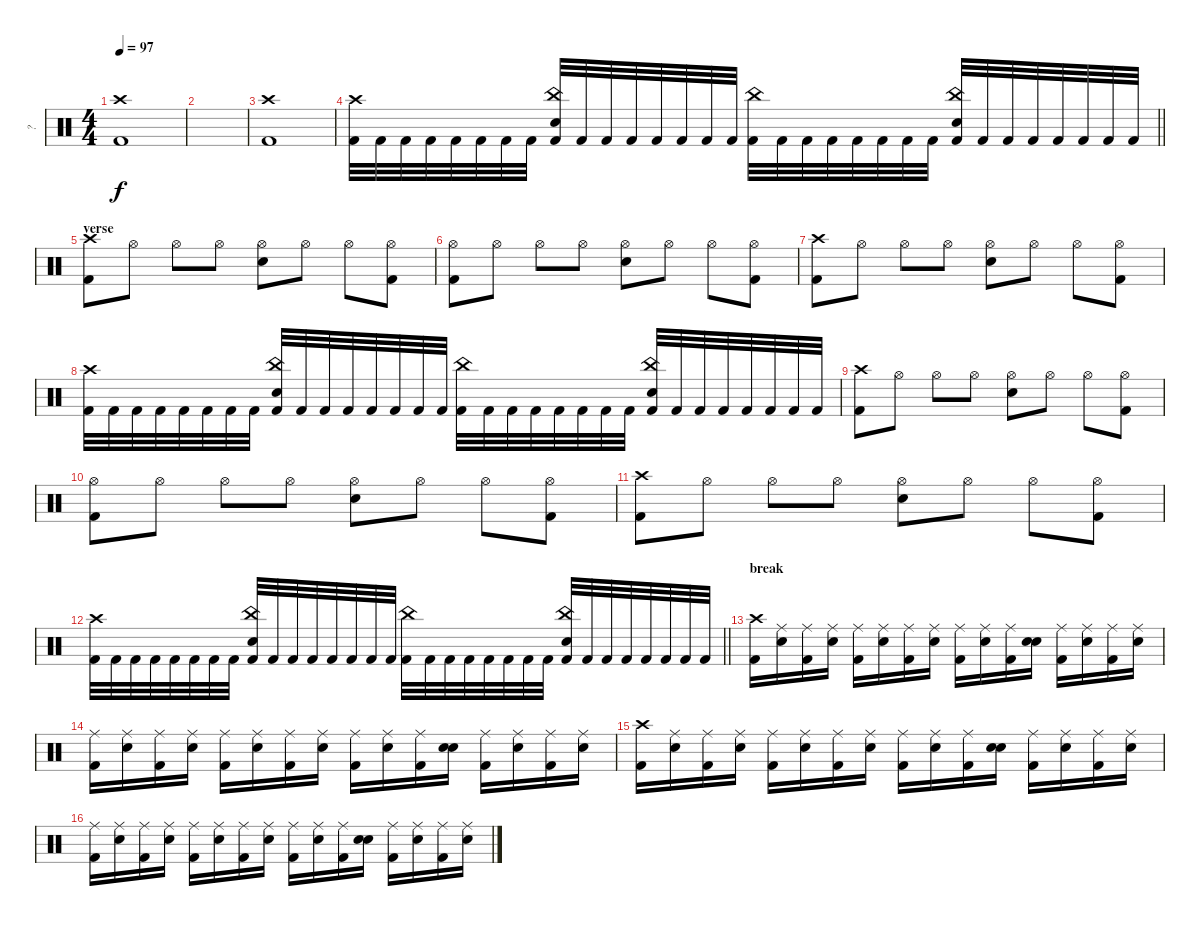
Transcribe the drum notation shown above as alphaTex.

\track ("?" "?") {instrument percussion}
\staff {score}
\articulation defaults
\ts (4 4)
\tempo 97
\clef neutral
\ks c
("Crash high (hit)" "Kick (hit) 2").1{dy f} |
|
("Crash high (hit)" "Kick (hit) 2").1 |
\barLineRight lightlight
("Crash high (hit)" "Kick (hit) 2").32 "Kick (hit) 2".32 "Kick (hit) 2".32 "Kick (hit) 2".32 "Kick (hit) 2".32 "Kick (hit) 2".32 "Kick (hit) 2".32 "Kick (hit) 2".32 ("China (hit)" "Electric Snare (hit)" "Kick (hit) 2").32 "Kick (hit) 2".32 "Kick (hit) 2".32 "Kick (hit) 2".32 "Kick (hit) 2".32 "Kick (hit) 2".32 "Kick (hit) 2".32 "Kick (hit) 2".32 ("China (hit)" "Kick (hit) 2").32 "Kick (hit) 2".32 "Kick (hit) 2".32 "Kick (hit) 2".32 "Kick (hit) 2".32 "Kick (hit) 2".32 "Kick (hit) 2".32 "Kick (hit) 2".32 ("China (hit)" "Electric Snare (hit)" "Kick (hit) 2").32 "Kick (hit) 2".32 "Kick (hit) 2".32 "Kick (hit) 2".32 "Kick (hit) 2".32 "Kick (hit) 2".32 "Kick (hit) 2".32 "Kick (hit) 2".32 |
\section ("" "verse")
("Crash high (hit)" "Kick (hit) 2").8 "Hi-Hat (open)".8 "Hi-Hat (open)".8 "Hi-Hat (open)".8 ("Hi-Hat (open)" "Electric Snare (hit)").8 "Hi-Hat (open)".8 "Hi-Hat (open)".8 ("Hi-Hat (open)" "Kick (hit) 2").8 |
("Hi-Hat (open)" "Kick (hit) 2").8 "Hi-Hat (open)".8 "Hi-Hat (open)".8 "Hi-Hat (open)".8 ("Hi-Hat (open)" "Electric Snare (hit)").8 "Hi-Hat (open)".8 "Hi-Hat (open)".8 ("Hi-Hat (open)" "Kick (hit) 2").8 |
("Crash high (hit)" "Kick (hit) 2").8 "Hi-Hat (open)".8 "Hi-Hat (open)".8 "Hi-Hat (open)".8 ("Hi-Hat (open)" "Electric Snare (hit)").8 "Hi-Hat (open)".8 "Hi-Hat (open)".8 ("Hi-Hat (open)" "Kick (hit) 2").8 |
("Crash high (hit)" "Kick (hit) 2").32 "Kick (hit) 2".32 "Kick (hit) 2".32 "Kick (hit) 2".32 "Kick (hit) 2".32 "Kick (hit) 2".32 "Kick (hit) 2".32 "Kick (hit) 2".32 ("China (hit)" "Electric Snare (hit)" "Kick (hit) 2").32 "Kick (hit) 2".32 "Kick (hit) 2".32 "Kick (hit) 2".32 "Kick (hit) 2".32 "Kick (hit) 2".32 "Kick (hit) 2".32 "Kick (hit) 2".32 ("China (hit)" "Kick (hit) 2").32 "Kick (hit) 2".32 "Kick (hit) 2".32 "Kick (hit) 2".32 "Kick (hit) 2".32 "Kick (hit) 2".32 "Kick (hit) 2".32 "Kick (hit) 2".32 ("China (hit)" "Electric Snare (hit)" "Kick (hit) 2").32 "Kick (hit) 2".32 "Kick (hit) 2".32 "Kick (hit) 2".32 "Kick (hit) 2".32 "Kick (hit) 2".32 "Kick (hit) 2".32 "Kick (hit) 2".32 |
("Crash high (hit)" "Kick (hit) 2").8 "Hi-Hat (open)".8 "Hi-Hat (open)".8 "Hi-Hat (open)".8 ("Hi-Hat (open)" "Electric Snare (hit)").8 "Hi-Hat (open)".8 "Hi-Hat (open)".8 ("Hi-Hat (open)" "Kick (hit) 2").8 |
("Hi-Hat (open)" "Kick (hit) 2").8 "Hi-Hat (open)".8 "Hi-Hat (open)".8 "Hi-Hat (open)".8 ("Hi-Hat (open)" "Electric Snare (hit)").8 "Hi-Hat (open)".8 "Hi-Hat (open)".8 ("Hi-Hat (open)" "Kick (hit) 2").8 |
("Crash high (hit)" "Kick (hit) 2").8 "Hi-Hat (open)".8 "Hi-Hat (open)".8 "Hi-Hat (open)".8 ("Hi-Hat (open)" "Electric Snare (hit)").8 "Hi-Hat (open)".8 "Hi-Hat (open)".8 ("Hi-Hat (open)" "Kick (hit) 2").8 |
\barLineRight lightlight
("Crash high (hit)" "Kick (hit) 2").32 "Kick (hit) 2".32 "Kick (hit) 2".32 "Kick (hit) 2".32 "Kick (hit) 2".32 "Kick (hit) 2".32 "Kick (hit) 2".32 "Kick (hit) 2".32 ("China (hit)" "Electric Snare (hit)" "Kick (hit) 2").32 "Kick (hit) 2".32 "Kick (hit) 2".32 "Kick (hit) 2".32 "Kick (hit) 2".32 "Kick (hit) 2".32 "Kick (hit) 2".32 "Kick (hit) 2".32 ("China (hit)" "Kick (hit) 2").32 "Kick (hit) 2".32 "Kick (hit) 2".32 "Kick (hit) 2".32 "Kick (hit) 2".32 "Kick (hit) 2".32 "Kick (hit) 2".32 "Kick (hit) 2".32 ("China (hit)" "Electric Snare (hit)" "Kick (hit) 2").32 "Kick (hit) 2".32 "Kick (hit) 2".32 "Kick (hit) 2".32 "Kick (hit) 2".32 "Kick (hit) 2".32 "Kick (hit) 2".32 "Kick (hit) 2".32 |
\section ("" "break")
("Crash high (hit)" "Kick (hit) 2").16 ("Ride (middle)" "Electric Snare (hit)").16 ("Ride (middle)" "Kick (hit) 2").16 ("Ride (middle)" "Electric Snare (hit)").16 ("Ride (middle)" "Kick (hit) 2").16 ("Ride (middle)" "Electric Snare (hit)").16 ("Ride (middle)" "Kick (hit) 2").16 ("Ride (middle)" "Electric Snare (hit)").16 ("Ride (middle)" "Kick (hit) 2").16 ("Ride (middle)" "Electric Snare (hit)").16 ("Ride (middle)" "Kick (hit) 2").16 ("Snare (hit)" "Electric Snare (hit)").16 ("Ride (middle)" "Kick (hit) 2").16 ("Ride (middle)" "Electric Snare (hit)").16 ("Ride (middle)" "Kick (hit) 2").16 ("Ride (middle)" "Electric Snare (hit)").16 |
("Ride (middle)" "Kick (hit) 2").16 ("Ride (middle)" "Electric Snare (hit)").16 ("Ride (middle)" "Kick (hit) 2").16 ("Ride (middle)" "Electric Snare (hit)").16 ("Ride (middle)" "Kick (hit) 2").16 ("Ride (middle)" "Electric Snare (hit)").16 ("Ride (middle)" "Kick (hit) 2").16 ("Ride (middle)" "Electric Snare (hit)").16 ("Ride (middle)" "Kick (hit) 2").16 ("Ride (middle)" "Electric Snare (hit)").16 ("Ride (middle)" "Kick (hit) 2").16 ("Snare (hit)" "Electric Snare (hit)").16 ("Ride (middle)" "Kick (hit) 2").16 ("Ride (middle)" "Electric Snare (hit)").16 ("Ride (middle)" "Kick (hit) 2").16 ("Ride (middle)" "Electric Snare (hit)").16 |
("Crash high (hit)" "Kick (hit) 2").16 ("Ride (middle)" "Electric Snare (hit)").16 ("Ride (middle)" "Kick (hit) 2").16 ("Ride (middle)" "Electric Snare (hit)").16 ("Ride (middle)" "Kick (hit) 2").16 ("Ride (middle)" "Electric Snare (hit)").16 ("Ride (middle)" "Kick (hit) 2").16 ("Ride (middle)" "Electric Snare (hit)").16 ("Ride (middle)" "Kick (hit) 2").16 ("Ride (middle)" "Electric Snare (hit)").16 ("Ride (middle)" "Kick (hit) 2").16 ("Snare (hit)" "Electric Snare (hit)").16 ("Ride (middle)" "Kick (hit) 2").16 ("Ride (middle)" "Electric Snare (hit)").16 ("Ride (middle)" "Kick (hit) 2").16 ("Ride (middle)" "Electric Snare (hit)").16 |
("Ride (middle)" "Kick (hit) 2").16 ("Ride (middle)" "Electric Snare (hit)").16 ("Ride (middle)" "Kick (hit) 2").16 ("Ride (middle)" "Electric Snare (hit)").16 ("Ride (middle)" "Kick (hit) 2").16 ("Ride (middle)" "Electric Snare (hit)").16 ("Ride (middle)" "Kick (hit) 2").16 ("Ride (middle)" "Electric Snare (hit)").16 ("Ride (middle)" "Kick (hit) 2").16 ("Ride (middle)" "Electric Snare (hit)").16 ("Ride (middle)" "Kick (hit) 2").16 ("Snare (hit)" "Electric Snare (hit)").16 ("Ride (middle)" "Kick (hit) 2").16 ("Ride (middle)" "Electric Snare (hit)").16 ("Ride (middle)" "Kick (hit) 2").16 ("Ride (middle)" "Electric Snare (hit)").16
